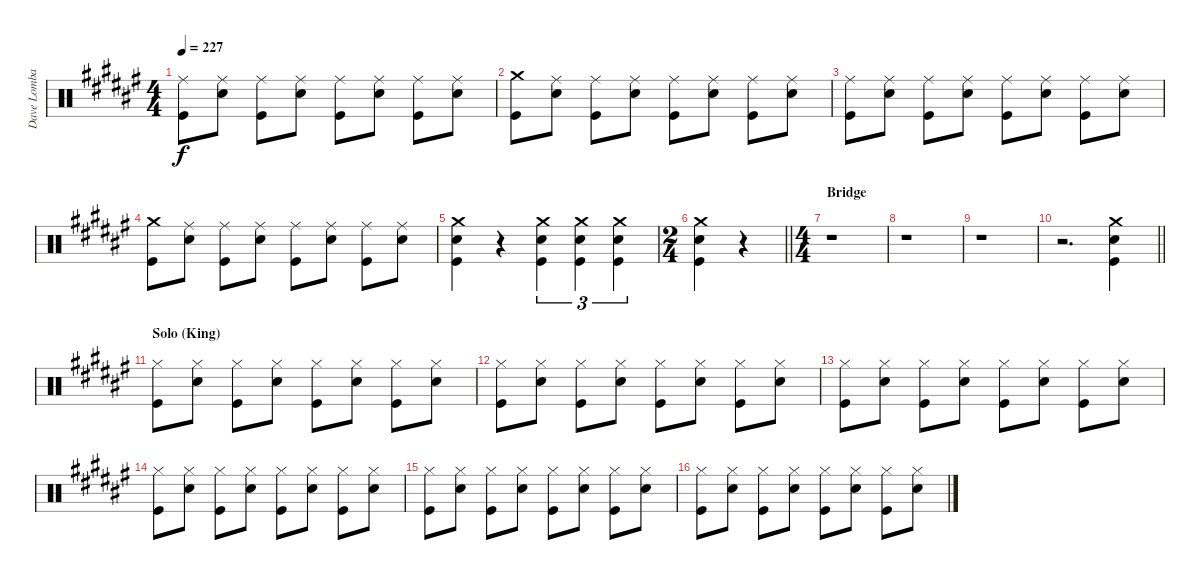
\track ("Dave Lombardo" "Dave Lomba") {instrument percussion}
\staff {score}
\articulation defaults
\ts (4 4)
\tempo 227
\clef neutral
\ks f#
("Ride (middle)" "Kick (hit)").8{dy f} ("Ride (middle)" "Snare (hit) 2").8 ("Ride (middle)" "Kick (hit)").8 ("Ride (middle)" "Snare (hit) 2").8 ("Ride (middle)" "Kick (hit)").8 ("Ride (middle)" "Snare (hit) 2").8 ("Ride (middle)" "Kick (hit)").8 ("Ride (middle)" "Snare (hit) 2").8 |
("Crash medium (hit)" "Kick (hit)").8 ("Ride (middle)" "Snare (hit) 2").8 ("Ride (middle)" "Kick (hit)").8 ("Ride (middle)" "Snare (hit) 2").8 ("Ride (middle)" "Kick (hit)").8 ("Ride (middle)" "Snare (hit) 2").8 ("Ride (middle)" "Kick (hit)").8 ("Ride (middle)" "Snare (hit) 2").8 |
("Ride (middle)" "Kick (hit)").8 ("Ride (middle)" "Snare (hit) 2").8 ("Ride (middle)" "Kick (hit)").8 ("Ride (middle)" "Snare (hit) 2").8 ("Ride (middle)" "Kick (hit)").8 ("Ride (middle)" "Snare (hit) 2").8 ("Ride (middle)" "Kick (hit)").8 ("Ride (middle)" "Snare (hit) 2").8 |
("Crash medium (hit)" "Kick (hit)").8 ("Ride (middle)" "Snare (hit) 2").8 ("Ride (middle)" "Kick (hit)").8 ("Ride (middle)" "Snare (hit) 2").8 ("Ride (middle)" "Kick (hit)").8 ("Ride (middle)" "Snare (hit) 2").8 ("Ride (middle)" "Kick (hit)").8 ("Ride (middle)" "Snare (hit) 2").8 |
("Crash medium (hit)" "Snare (hit) 2" "Kick (hit)").4 r.4 ("Crash medium (hit)" "Snare (hit) 2" "Kick (hit)").4{tu (3 2)} ("Crash medium (hit)" "Snare (hit) 2" "Kick (hit)").4{tu (3 2)} ("Crash medium (hit)" "Snare (hit) 2" "Kick (hit)").4{tu (3 2)} |
\ts (2 4)
\barLineRight lightlight
("Crash medium (hit)" "Snare (hit) 2" "Kick (hit)").4 r.4 |
\ts (4 4)
\section ("" "Bridge")
r.1 |
r.1 |
r.1 |
\barLineRight lightlight
r.2{d} ("Crash medium (hit)" "Snare (hit) 2" "Kick (hit)").4 |
\section ("" "Solo (King)")
("Hi-Hat (closed)" "Kick (hit)").8 ("Hi-Hat (closed)" "Snare (hit) 2").8 ("Hi-Hat (closed)" "Kick (hit)").8 ("Hi-Hat (closed)" "Snare (hit) 2").8 ("Hi-Hat (closed)" "Kick (hit)").8 ("Hi-Hat (closed)" "Snare (hit) 2").8 ("Hi-Hat (closed)" "Kick (hit)").8 ("Hi-Hat (closed)" "Snare (hit) 2").8 |
("Hi-Hat (closed)" "Kick (hit)").8 ("Hi-Hat (closed)" "Snare (hit) 2").8 ("Hi-Hat (closed)" "Kick (hit)").8 ("Hi-Hat (closed)" "Snare (hit) 2").8 ("Hi-Hat (closed)" "Kick (hit)").8 ("Hi-Hat (closed)" "Snare (hit) 2").8 ("Hi-Hat (closed)" "Kick (hit)").8 ("Hi-Hat (closed)" "Snare (hit) 2").8 |
("Hi-Hat (closed)" "Kick (hit)").8 ("Hi-Hat (closed)" "Snare (hit) 2").8 ("Hi-Hat (closed)" "Kick (hit)").8 ("Hi-Hat (closed)" "Snare (hit) 2").8 ("Hi-Hat (closed)" "Kick (hit)").8 ("Hi-Hat (closed)" "Snare (hit) 2").8 ("Hi-Hat (closed)" "Kick (hit)").8 ("Hi-Hat (closed)" "Snare (hit) 2").8 |
("Hi-Hat (closed)" "Kick (hit)").8 ("Hi-Hat (closed)" "Snare (hit) 2").8 ("Hi-Hat (closed)" "Kick (hit)").8 ("Hi-Hat (closed)" "Snare (hit) 2").8 ("Hi-Hat (closed)" "Kick (hit)").8 ("Hi-Hat (closed)" "Snare (hit) 2").8 ("Hi-Hat (closed)" "Kick (hit)").8 ("Hi-Hat (closed)" "Snare (hit) 2").8 |
("Hi-Hat (closed)" "Kick (hit)").8 ("Hi-Hat (closed)" "Snare (hit) 2").8 ("Hi-Hat (closed)" "Kick (hit)").8 ("Hi-Hat (closed)" "Snare (hit) 2").8 ("Hi-Hat (closed)" "Kick (hit)").8 ("Hi-Hat (closed)" "Snare (hit) 2").8 ("Hi-Hat (closed)" "Kick (hit)").8 ("Hi-Hat (closed)" "Snare (hit) 2").8 |
("Hi-Hat (closed)" "Kick (hit)").8 ("Hi-Hat (closed)" "Snare (hit) 2").8 ("Hi-Hat (closed)" "Kick (hit)").8 ("Hi-Hat (closed)" "Snare (hit) 2").8 ("Hi-Hat (closed)" "Kick (hit)").8 ("Hi-Hat (closed)" "Snare (hit) 2").8 ("Hi-Hat (closed)" "Kick (hit)").8 ("Hi-Hat (closed)" "Snare (hit) 2").8
